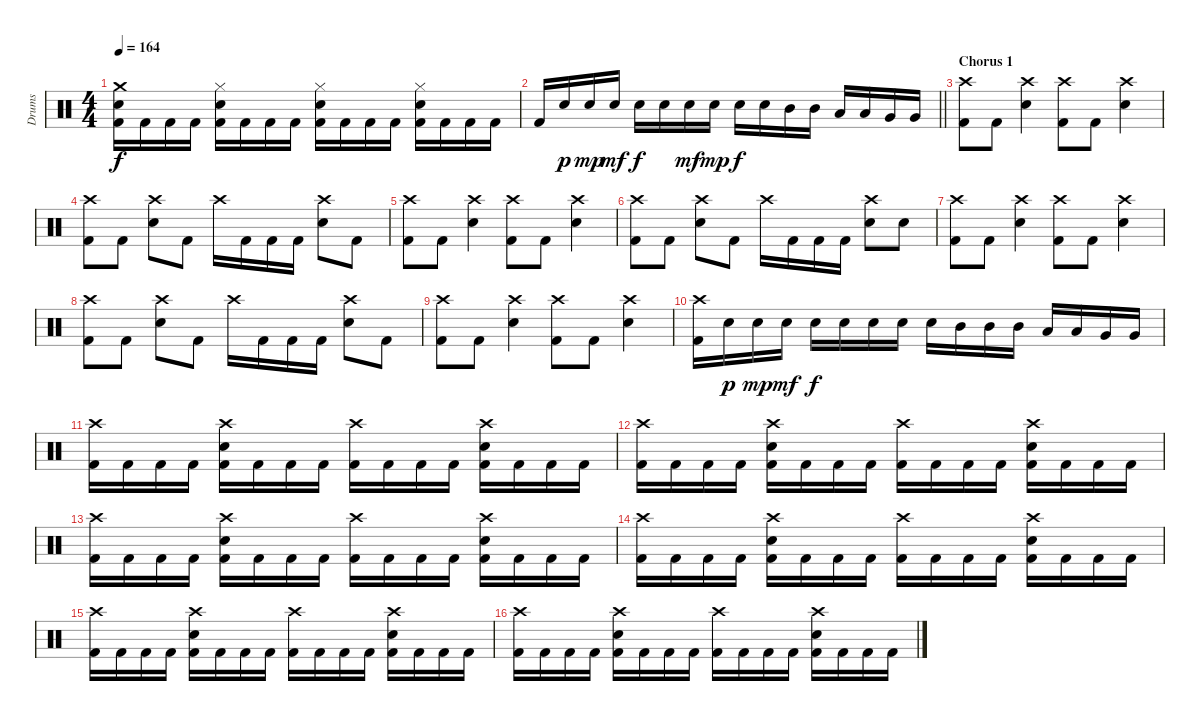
\track ("Drums" "Drums") {instrument percussion}
\staff {score}
\articulation defaults
\ts (4 4)
\tempo 164
\clef neutral
\ks c
("Crash medium (hit)" "Electric Snare (hit)" "Kick (hit) 2").16{dy f} "Kick (hit) 2".16 "Kick (hit) 2".16 "Kick (hit) 2".16 ("Hi-Hat (closed)" "Electric Snare (hit)" "Kick (hit) 2").16 "Kick (hit) 2".16 "Kick (hit) 2".16 "Kick (hit) 2".16 ("Hi-Hat (closed)" "Electric Snare (hit)" "Kick (hit) 2").16 "Kick (hit) 2".16 "Kick (hit) 2".16 "Kick (hit) 2".16 ("Hi-Hat (closed)" "Electric Snare (hit)" "Kick (hit) 2").16 "Kick (hit) 2".16 "Kick (hit) 2".16 "Kick (hit) 2".16 |
\barLineRight lightlight "Kick (hit) 2".16 "Electric Snare (hit)".16{dy p} "Electric Snare (hit)".16{dy mp} "Electric Snare (hit)".16{dy mf} "Electric Snare (hit)".16{dy f} "Electric Snare (hit)".16 "Electric Snare (hit)".16{dy mf} "Electric Snare (hit)".16{dy mp} "Electric Snare (hit)".16{dy f} "Electric Snare (hit)".16 "Mid Tom (hit)".16 "Mid Tom (hit)".16 "Low Tom (hit)".16 "Low Tom (hit)".16 "Very Low Tom (hit)".16 "Very Low Tom (hit)".16
|
\section ("" "Chorus 1")
("Crash high (hit)" "Kick (hit) 2").8 "Kick (hit) 2".8 ("Crash high (hit)" "Electric Snare (hit)").4 ("Crash high (hit)" "Kick (hit) 2").8 "Kick (hit) 2".8 ("Crash high (hit)" "Electric Snare (hit)").4 |
("Crash high (hit)" "Kick (hit) 2").8 "Kick (hit) 2".8 ("Crash high (hit)" "Electric Snare (hit)").8 "Kick (hit) 2".8 "Crash high (hit)".16 "Kick (hit) 2".16 "Kick (hit) 2".16 "Kick (hit) 2".16 ("Crash high (hit)" "Electric Snare (hit)").8 "Kick (hit) 2".8 |
("Crash high (hit)" "Kick (hit) 2").8 "Kick (hit) 2".8 ("Crash high (hit)" "Electric Snare (hit)").4 ("Crash high (hit)" "Kick (hit) 2").8 "Kick (hit) 2".8 ("Crash high (hit)" "Electric Snare (hit)").4 |
("Crash high (hit)" "Kick (hit) 2").8 "Kick (hit) 2".8 ("Crash high (hit)" "Electric Snare (hit)").8 "Kick (hit) 2".8 "Crash high (hit)".16 "Kick (hit) 2".16 "Kick (hit) 2".16 "Kick (hit) 2".16 ("Crash high (hit)" "Electric Snare (hit)").8 "Electric Snare (hit)".8 |
("Crash high (hit)" "Kick (hit) 2").8 "Kick (hit) 2".8 ("Crash high (hit)" "Electric Snare (hit)").4 ("Crash high (hit)" "Kick (hit) 2").8 "Kick (hit) 2".8 ("Crash high (hit)" "Electric Snare (hit)").4 |
("Crash high (hit)" "Kick (hit) 2").8 "Kick (hit) 2".8 ("Crash high (hit)" "Electric Snare (hit)").8 "Kick (hit) 2".8 "Crash high (hit)".16 "Kick (hit) 2".16 "Kick (hit) 2".16 "Kick (hit) 2".16 ("Crash high (hit)" "Electric Snare (hit)").8 "Kick (hit) 2".8 |
("Crash high (hit)" "Kick (hit) 2").8 "Kick (hit) 2".8 ("Crash high (hit)" "Electric Snare (hit)").4 ("Crash high (hit)" "Kick (hit) 2").8 "Kick (hit) 2".8 ("Crash high (hit)" "Electric Snare (hit)").4 |
("Crash high (hit)" "Kick (hit) 2").16 "Electric Snare (hit)".16{dy p} "Electric Snare (hit)".16{dy mp} "Electric Snare (hit)".16{dy mf} "Electric Snare (hit)".16{dy f} "Electric Snare (hit)".16 "Electric Snare (hit)".16 "Electric Snare (hit)".16 "Electric Snare (hit)".16 "Mid Tom (hit)".16 "Mid Tom (hit)".16 "Mid Tom (hit)".16 "Low Tom (hit)".16 "Low Tom (hit)".16 "Very Low Tom (hit)".16 "Very Low Tom (hit)".16 |
("Crash high (hit)" "Kick (hit) 2").16 "Kick (hit) 2".16 "Kick (hit) 2".16 "Kick (hit) 2".16 ("Crash high (hit)" "Electric Snare (hit)" "Kick (hit) 2").16 "Kick (hit) 2".16 "Kick (hit) 2".16 "Kick (hit) 2".16 ("Crash high (hit)" "Kick (hit) 2").16 "Kick (hit) 2".16 "Kick (hit) 2".16 "Kick (hit) 2".16 ("Crash high (hit)" "Electric Snare (hit)" "Kick (hit) 2").16 "Kick (hit) 2".16 "Kick (hit) 2".16 "Kick (hit) 2".16 |
("Crash high (hit)" "Kick (hit) 2").16 "Kick (hit) 2".16 "Kick (hit) 2".16 "Kick (hit) 2".16 ("Crash high (hit)" "Electric Snare (hit)" "Kick (hit) 2").16 "Kick (hit) 2".16 "Kick (hit) 2".16 "Kick (hit) 2".16 ("Crash high (hit)" "Kick (hit) 2").16 "Kick (hit) 2".16 "Kick (hit) 2".16 "Kick (hit) 2".16 ("Crash high (hit)" "Electric Snare (hit)" "Kick (hit) 2").16 "Kick (hit) 2".16 "Kick (hit) 2".16 "Kick (hit) 2".16 |
("Crash high (hit)" "Kick (hit) 2").16 "Kick (hit) 2".16 "Kick (hit) 2".16 "Kick (hit) 2".16 ("Crash high (hit)" "Electric Snare (hit)" "Kick (hit) 2").16 "Kick (hit) 2".16 "Kick (hit) 2".16 "Kick (hit) 2".16 ("Crash high (hit)" "Kick (hit) 2").16 "Kick (hit) 2".16 "Kick (hit) 2".16 "Kick (hit) 2".16 ("Crash high (hit)" "Electric Snare (hit)" "Kick (hit) 2").16 "Kick (hit) 2".16 "Kick (hit) 2".16 "Kick (hit) 2".16 |
("Crash high (hit)" "Kick (hit) 2").16 "Kick (hit) 2".16 "Kick (hit) 2".16 "Kick (hit) 2".16 ("Crash high (hit)" "Electric Snare (hit)" "Kick (hit) 2").16 "Kick (hit) 2".16 "Kick (hit) 2".16 "Kick (hit) 2".16 ("Crash high (hit)" "Kick (hit) 2").16 "Kick (hit) 2".16 "Kick (hit) 2".16 "Kick (hit) 2".16 ("Crash high (hit)" "Electric Snare (hit)" "Kick (hit) 2").16 "Kick (hit) 2".16 "Kick (hit) 2".16 "Kick (hit) 2".16 |
("Crash high (hit)" "Kick (hit) 2").16 "Kick (hit) 2".16 "Kick (hit) 2".16 "Kick (hit) 2".16 ("Crash high (hit)" "Electric Snare (hit)" "Kick (hit) 2").16 "Kick (hit) 2".16 "Kick (hit) 2".16 "Kick (hit) 2".16 ("Crash high (hit)" "Kick (hit) 2").16 "Kick (hit) 2".16 "Kick (hit) 2".16 "Kick (hit) 2".16 ("Crash high (hit)" "Electric Snare (hit)" "Kick (hit) 2").16 "Kick (hit) 2".16 "Kick (hit) 2".16 "Kick (hit) 2".16 |
("Crash high (hit)" "Kick (hit) 2").16 "Kick (hit) 2".16 "Kick (hit) 2".16 "Kick (hit) 2".16 ("Crash high (hit)" "Electric Snare (hit)" "Kick (hit) 2").16 "Kick (hit) 2".16 "Kick (hit) 2".16 "Kick (hit) 2".16 ("Crash high (hit)" "Kick (hit) 2").16 "Kick (hit) 2".16 "Kick (hit) 2".16 "Kick (hit) 2".16 ("Crash high (hit)" "Electric Snare (hit)" "Kick (hit) 2").16 "Kick (hit) 2".16 "Kick (hit) 2".16 "Kick (hit) 2".16
